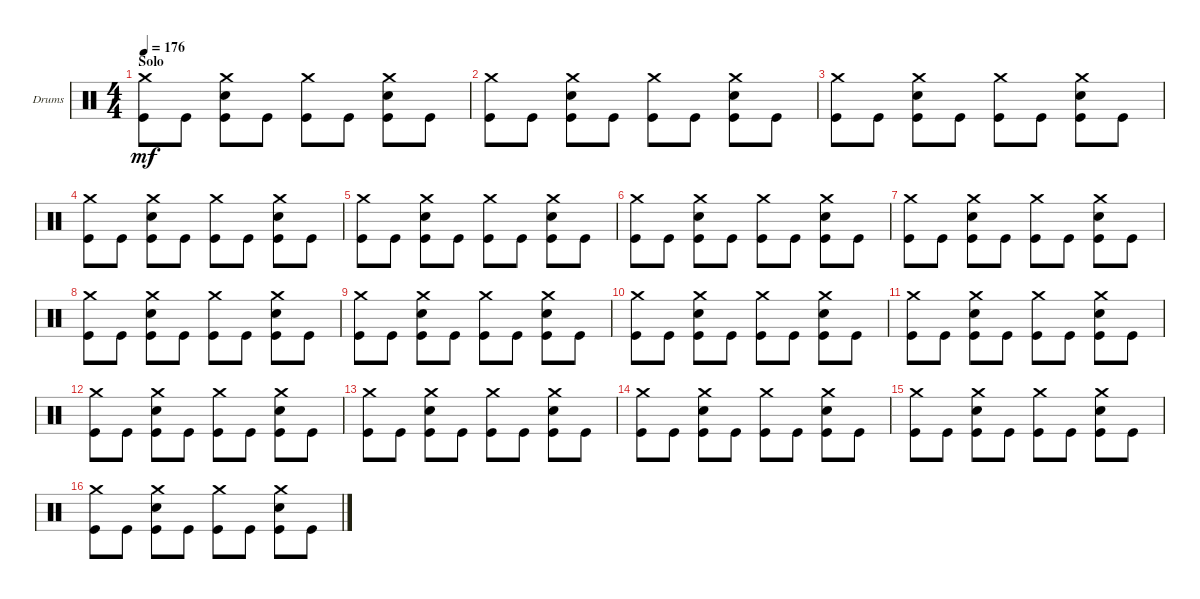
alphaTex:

\bracketExtendMode groupsimilarinstruments
\firstSystemTrackNameOrientation horizontal
\otherSystemsTrackNameOrientation horizontal
\track ("Drums" "Drums") {instrument percussion}
\staff {score}
\articulation defaults
\ts (4 4)
\section ("" "Solo")
\tempo 176
\clef neutral
\ks c
("Crash medium (hit)" "Kick (hit)").8{dy mf} "Kick (hit)".8 ("Crash medium (hit)" "Snare (hit) 2" "Kick (hit)").8 "Kick (hit)".8 ("Crash medium (hit)" "Kick (hit)").8 "Kick (hit)".8 ("Crash medium (hit)" "Snare (hit) 2" "Kick (hit)").8 "Kick (hit)".8 |
("Crash medium (hit)" "Kick (hit)").8 "Kick (hit)".8 ("Crash medium (hit)" "Snare (hit) 2" "Kick (hit)").8 "Kick (hit)".8 ("Crash medium (hit)" "Kick (hit)").8 "Kick (hit)".8 ("Crash medium (hit)" "Snare (hit) 2" "Kick (hit)").8 "Kick (hit)".8 |
("Crash medium (hit)" "Kick (hit)").8 "Kick (hit)".8 ("Crash medium (hit)" "Snare (hit) 2" "Kick (hit)").8 "Kick (hit)".8 ("Crash medium (hit)" "Kick (hit)").8 "Kick (hit)".8 ("Crash medium (hit)" "Snare (hit) 2" "Kick (hit)").8 "Kick (hit)".8 |
("Crash medium (hit)" "Kick (hit)").8 "Kick (hit)".8 ("Crash medium (hit)" "Snare (hit) 2" "Kick (hit)").8 "Kick (hit)".8 ("Crash medium (hit)" "Kick (hit)").8 "Kick (hit)".8 ("Crash medium (hit)" "Snare (hit) 2" "Kick (hit)").8 "Kick (hit)".8 |
("Crash medium (hit)" "Kick (hit)").8 "Kick (hit)".8 ("Crash medium (hit)" "Snare (hit) 2" "Kick (hit)").8 "Kick (hit)".8 ("Crash medium (hit)" "Kick (hit)").8 "Kick (hit)".8 ("Crash medium (hit)" "Snare (hit) 2" "Kick (hit)").8 "Kick (hit)".8 |
("Crash medium (hit)" "Kick (hit)").8 "Kick (hit)".8 ("Crash medium (hit)" "Snare (hit) 2" "Kick (hit)").8 "Kick (hit)".8 ("Crash medium (hit)" "Kick (hit)").8 "Kick (hit)".8 ("Crash medium (hit)" "Snare (hit) 2" "Kick (hit)").8 "Kick (hit)".8 |
("Crash medium (hit)" "Kick (hit)").8 "Kick (hit)".8 ("Crash medium (hit)" "Snare (hit) 2" "Kick (hit)").8 "Kick (hit)".8 ("Crash medium (hit)" "Kick (hit)").8 "Kick (hit)".8 ("Crash medium (hit)" "Snare (hit) 2" "Kick (hit)").8 "Kick (hit)".8 |
("Crash medium (hit)" "Kick (hit)").8 "Kick (hit)".8 ("Crash medium (hit)" "Snare (hit) 2" "Kick (hit)").8 "Kick (hit)".8 ("Crash medium (hit)" "Kick (hit)").8 "Kick (hit)".8 ("Crash medium (hit)" "Snare (hit) 2" "Kick (hit)").8 "Kick (hit)".8 |
("Crash medium (hit)" "Kick (hit)").8 "Kick (hit)".8 ("Crash medium (hit)" "Snare (hit) 2" "Kick (hit)").8 "Kick (hit)".8 ("Crash medium (hit)" "Kick (hit)").8 "Kick (hit)".8 ("Crash medium (hit)" "Snare (hit) 2" "Kick (hit)").8 "Kick (hit)".8 |
("Crash medium (hit)" "Kick (hit)").8 "Kick (hit)".8 ("Crash medium (hit)" "Snare (hit) 2" "Kick (hit)").8 "Kick (hit)".8 ("Crash medium (hit)" "Kick (hit)").8 "Kick (hit)".8 ("Crash medium (hit)" "Snare (hit) 2" "Kick (hit)").8 "Kick (hit)".8 |
("Crash medium (hit)" "Kick (hit)").8 "Kick (hit)".8 ("Crash medium (hit)" "Snare (hit) 2" "Kick (hit)").8 "Kick (hit)".8 ("Crash medium (hit)" "Kick (hit)").8 "Kick (hit)".8 ("Crash medium (hit)" "Snare (hit) 2" "Kick (hit)").8 "Kick (hit)".8 |
("Crash medium (hit)" "Kick (hit)").8 "Kick (hit)".8 ("Crash medium (hit)" "Snare (hit) 2" "Kick (hit)").8 "Kick (hit)".8 ("Crash medium (hit)" "Kick (hit)").8 "Kick (hit)".8 ("Crash medium (hit)" "Snare (hit) 2" "Kick (hit)").8 "Kick (hit)".8 |
("Crash medium (hit)" "Kick (hit)").8 "Kick (hit)".8 ("Crash medium (hit)" "Snare (hit) 2" "Kick (hit)").8 "Kick (hit)".8 ("Crash medium (hit)" "Kick (hit)").8 "Kick (hit)".8 ("Crash medium (hit)" "Snare (hit) 2" "Kick (hit)").8 "Kick (hit)".8 |
("Crash medium (hit)" "Kick (hit)").8 "Kick (hit)".8 ("Crash medium (hit)" "Snare (hit) 2" "Kick (hit)").8 "Kick (hit)".8 ("Crash medium (hit)" "Kick (hit)").8 "Kick (hit)".8 ("Crash medium (hit)" "Snare (hit) 2" "Kick (hit)").8 "Kick (hit)".8 |
("Crash medium (hit)" "Kick (hit)").8 "Kick (hit)".8 ("Crash medium (hit)" "Snare (hit) 2" "Kick (hit)").8 "Kick (hit)".8 ("Crash medium (hit)" "Kick (hit)").8 "Kick (hit)".8 ("Crash medium (hit)" "Snare (hit) 2" "Kick (hit)").8 "Kick (hit)".8 |
("Crash medium (hit)" "Kick (hit)").8 "Kick (hit)".8 ("Crash medium (hit)" "Snare (hit) 2" "Kick (hit)").8 "Kick (hit)".8 ("Crash medium (hit)" "Kick (hit)").8 "Kick (hit)".8 ("Crash medium (hit)" "Snare (hit) 2" "Kick (hit)").8 "Kick (hit)".8
